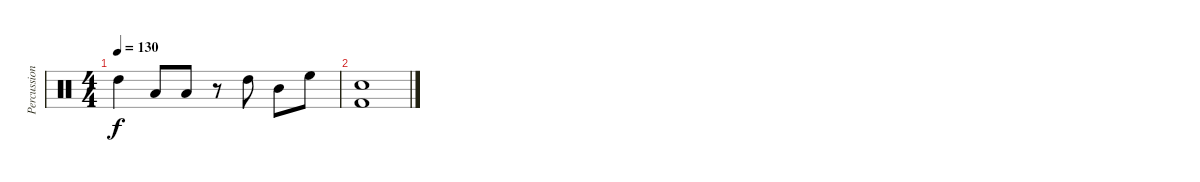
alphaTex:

\track ("Percussions" "Percussion") {instrument percussion}
\staff {score}
\articulation defaults
\ts (4 4)
\tempo 130
\clef neutral
\ks c "High Tom (hit)".4{dy f} "Low Tom (hit)".8 "Low Tom (hit)".8
r.8 "High Tom (hit)".8 "Mid Tom (hit)".8 "High Floor Tom (hit)".8 |
("Kick (hit) 2" "Electric Snare (hit)").1
